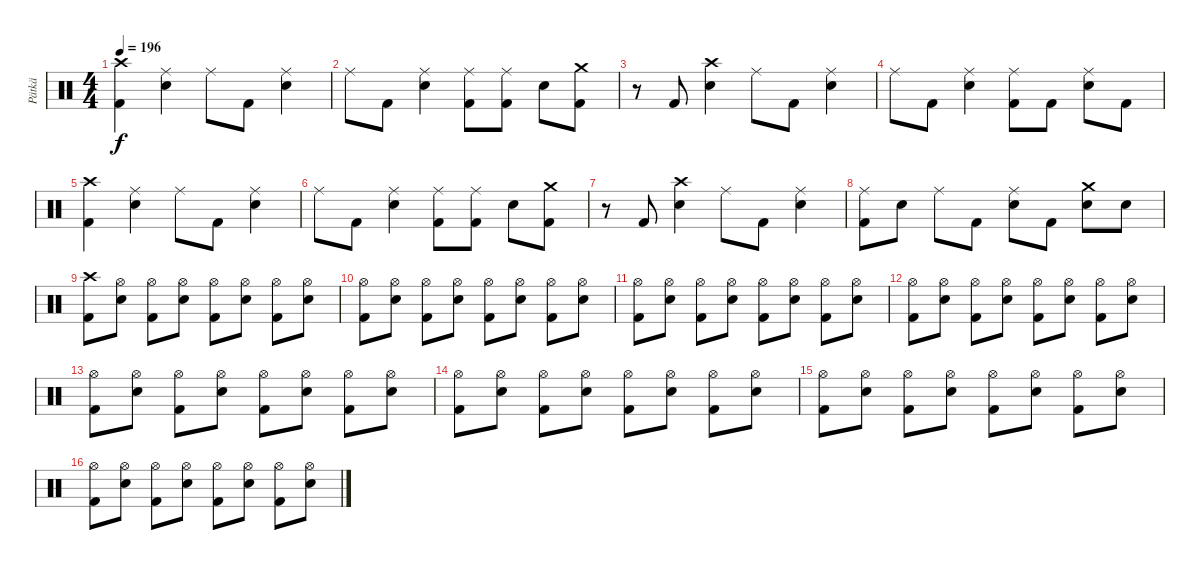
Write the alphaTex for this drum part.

\track ("Pätkä" "Pätkä") {instrument percussion}
\staff {score}
\articulation defaults
\ts (4 4)
\tempo 196
\clef neutral
\ks c
("Crash high (hit)" "Kick (hit) 2").4{dy f} ("Ride (middle)" "Electric Snare (hit)").4 "Ride (middle)".8 "Kick (hit) 2".8 ("Ride (middle)" "Electric Snare (hit)").4 |
"Ride (middle)".8 "Kick (hit) 2".8 ("Ride (middle)" "Electric Snare (hit)").4 ("Ride (middle)" "Kick (hit) 2").8 ("Ride (middle)" "Kick (hit) 2").8 "Electric Snare (hit)".8 ("Crash medium (hit)" "Kick (hit) 2").8 |
r.8 "Kick (hit) 2".8 ("Crash high (hit)" "Electric Snare (hit)").4 "Ride (middle)".8 "Kick (hit) 2".8 ("Ride (middle)" "Electric Snare (hit)").4 |
"Ride (middle)".8 "Kick (hit) 2".8 ("Ride (middle)" "Electric Snare (hit)").4 ("Ride (middle)" "Kick (hit) 2").8 "Kick (hit) 2".8 ("Ride (middle)" "Electric Snare (hit)").8 "Kick (hit) 2".8 |
("Crash high (hit)" "Kick (hit) 2").4 ("Ride (middle)" "Electric Snare (hit)").4 "Ride (middle)".8 "Kick (hit) 2".8 ("Ride (middle)" "Electric Snare (hit)").4 |
"Ride (middle)".8 "Kick (hit) 2".8 ("Ride (middle)" "Electric Snare (hit)").4 ("Ride (middle)" "Kick (hit) 2").8 ("Ride (middle)" "Kick (hit) 2").8 "Electric Snare (hit)".8 ("Crash medium (hit)" "Kick (hit) 2").8 |
r.8 "Kick (hit) 2".8 ("Crash high (hit)" "Electric Snare (hit)").4 "Ride (middle)".8 "Kick (hit) 2".8 ("Ride (middle)" "Electric Snare (hit)").4 |
("Ride (middle)" "Kick (hit) 2").8 "Electric Snare (hit)".8 "Ride (middle)".8 "Kick (hit) 2".8 ("Ride (middle)" "Electric Snare (hit)").8 "Kick (hit) 2".8 ("Crash medium (hit)" "Electric Snare (hit)").8 "Electric Snare (hit)".8 |
("Crash high (hit)" "Kick (hit) 2").8 ("Hi-Hat (open)" "Electric Snare (hit)").8 ("Hi-Hat (open)" "Kick (hit) 2").8 ("Hi-Hat (open)" "Electric Snare (hit)").8 ("Hi-Hat (open)" "Kick (hit) 2").8 ("Hi-Hat (open)" "Electric Snare (hit)").8 ("Hi-Hat (open)" "Kick (hit) 2").8 ("Hi-Hat (open)" "Electric Snare (hit)").8 |
("Hi-Hat (open)" "Kick (hit) 2").8 ("Hi-Hat (open)" "Electric Snare (hit)").8 ("Hi-Hat (open)" "Kick (hit) 2").8 ("Hi-Hat (open)" "Electric Snare (hit)").8 ("Hi-Hat (open)" "Kick (hit) 2").8 ("Hi-Hat (open)" "Electric Snare (hit)").8 ("Hi-Hat (open)" "Kick (hit) 2").8 ("Hi-Hat (open)" "Electric Snare (hit)").8 |
("Hi-Hat (open)" "Kick (hit) 2").8 ("Hi-Hat (open)" "Electric Snare (hit)").8 ("Hi-Hat (open)" "Kick (hit) 2").8 ("Hi-Hat (open)" "Electric Snare (hit)").8 ("Hi-Hat (open)" "Kick (hit) 2").8 ("Hi-Hat (open)" "Electric Snare (hit)").8 ("Hi-Hat (open)" "Kick (hit) 2").8 ("Hi-Hat (open)" "Electric Snare (hit)").8 |
("Hi-Hat (open)" "Kick (hit) 2").8 ("Hi-Hat (open)" "Electric Snare (hit)").8 ("Hi-Hat (open)" "Kick (hit) 2").8 ("Hi-Hat (open)" "Electric Snare (hit)").8 ("Hi-Hat (open)" "Kick (hit) 2").8 ("Hi-Hat (open)" "Electric Snare (hit)").8 ("Hi-Hat (open)" "Kick (hit) 2").8 ("Hi-Hat (open)" "Electric Snare (hit)").8 |
("Hi-Hat (open)" "Kick (hit) 2").8 ("Hi-Hat (open)" "Electric Snare (hit)").8 ("Hi-Hat (open)" "Kick (hit) 2").8 ("Hi-Hat (open)" "Electric Snare (hit)").8 ("Hi-Hat (open)" "Kick (hit) 2").8 ("Hi-Hat (open)" "Electric Snare (hit)").8 ("Hi-Hat (open)" "Kick (hit) 2").8 ("Hi-Hat (open)" "Electric Snare (hit)").8 |
("Hi-Hat (open)" "Kick (hit) 2").8 ("Hi-Hat (open)" "Electric Snare (hit)").8 ("Hi-Hat (open)" "Kick (hit) 2").8 ("Hi-Hat (open)" "Electric Snare (hit)").8 ("Hi-Hat (open)" "Kick (hit) 2").8 ("Hi-Hat (open)" "Electric Snare (hit)").8 ("Hi-Hat (open)" "Kick (hit) 2").8 ("Hi-Hat (open)" "Electric Snare (hit)").8 |
("Hi-Hat (open)" "Kick (hit) 2").8 ("Hi-Hat (open)" "Electric Snare (hit)").8 ("Hi-Hat (open)" "Kick (hit) 2").8 ("Hi-Hat (open)" "Electric Snare (hit)").8 ("Hi-Hat (open)" "Kick (hit) 2").8 ("Hi-Hat (open)" "Electric Snare (hit)").8 ("Hi-Hat (open)" "Kick (hit) 2").8 ("Hi-Hat (open)" "Electric Snare (hit)").8 |
("Hi-Hat (open)" "Kick (hit) 2").8 ("Hi-Hat (open)" "Electric Snare (hit)").8 ("Hi-Hat (open)" "Kick (hit) 2").8 ("Hi-Hat (open)" "Electric Snare (hit)").8 ("Hi-Hat (open)" "Kick (hit) 2").8 ("Hi-Hat (open)" "Electric Snare (hit)").8 ("Hi-Hat (open)" "Kick (hit) 2").8 ("Hi-Hat (open)" "Electric Snare (hit)").8
